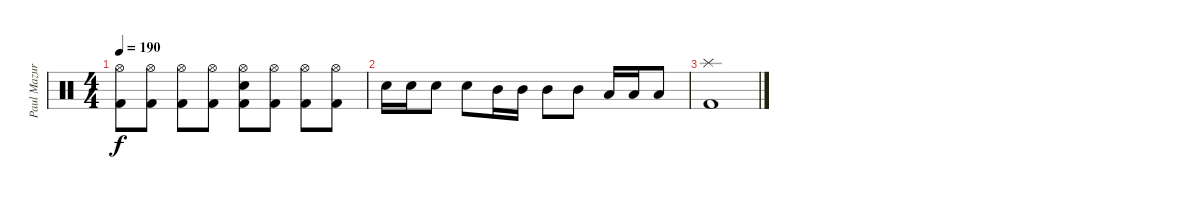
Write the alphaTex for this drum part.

\track ("Paul Mazurkiewicz" "Paul Mazur") {instrument percussion}
\staff {score}
\articulation defaults
\ts (4 4)
\tempo 190
\clef neutral
\ks c
("Hi-Hat (open)" "Kick (hit) 2").8{dy f} ("Hi-Hat (open)" "Kick (hit) 2").8 ("Hi-Hat (open)" "Kick (hit) 2").8 ("Hi-Hat (open)" "Kick (hit) 2").8 ("Hi-Hat (open)" "Snare (hit) 2" "Kick (hit) 2").8 ("Hi-Hat (open)" "Kick (hit) 2").8 ("Hi-Hat (open)" "Kick (hit) 2").8 ("Hi-Hat (open)" "Kick (hit) 2").8 |
"Snare (hit) 2".16 "Snare (hit) 2".16 "Snare (hit) 2".8 "Snare (hit) 2".8 "Mid Tom (hit)".16 "Mid Tom (hit)".16 "Mid Tom (hit)".8 "Mid Tom (hit)".8 "Low Tom (hit)".16 "Low Tom (hit)".16 "Low Tom (hit)".8 |
("Splash (hit)" "Kick (hit) 2").1
